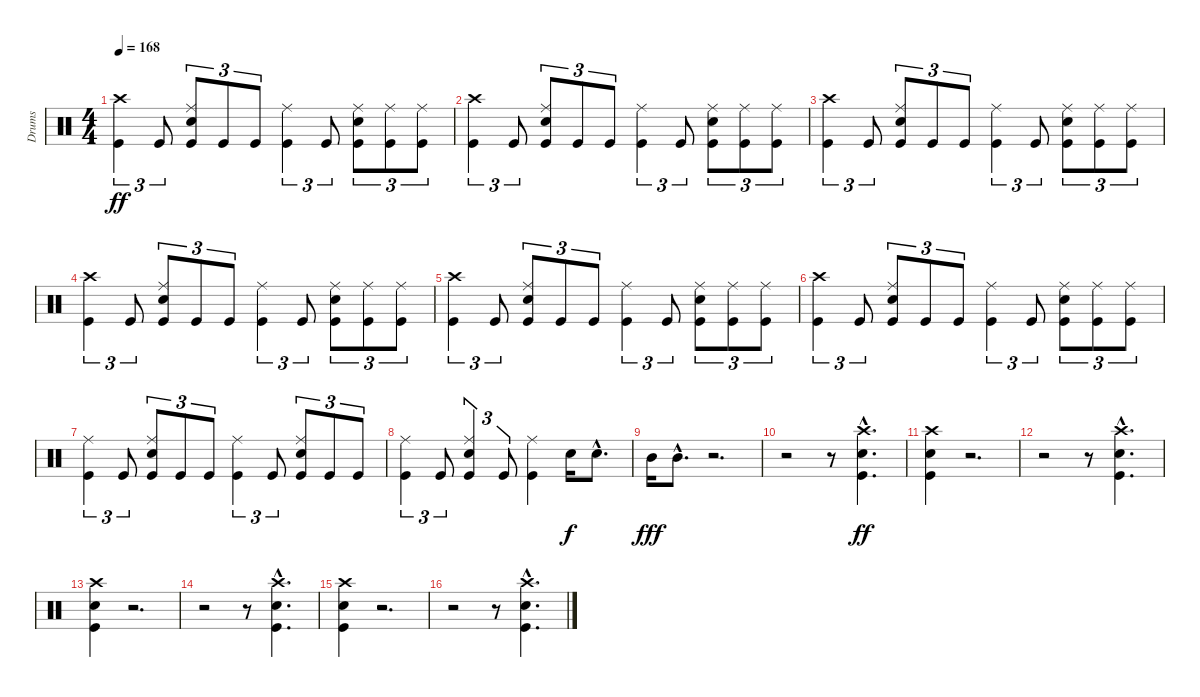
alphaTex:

\track ("Drums" "Drums") {instrument percussion}
\staff {score}
\articulation defaults
\ts (4 4)
\tempo 168
\clef neutral
\ks c
("Crash high (hit)" "Kick (hit)").4{tu (3 2) dy ff} "Kick (hit)".8{tu (3 2)} ("Ride (middle)" "Electric Snare (hit)" "Kick (hit)").8{tu (3 2)} "Kick (hit)".8{tu (3 2)} "Kick (hit)".8{tu (3 2)} ("Ride (middle)" "Kick (hit)").4{tu (3 2)} "Kick (hit)".8{tu (3 2)} ("Ride (middle)" "Electric Snare (hit)" "Kick (hit)").8{tu (3 2)} ("Ride (middle)" "Kick (hit)").8{tu (3 2)} ("Ride (middle)" "Kick (hit)").8{tu (3 2)} |
("Crash high (hit)" "Kick (hit)").4{tu (3 2)} "Kick (hit)".8{tu (3 2)} ("Ride (middle)" "Electric Snare (hit)" "Kick (hit)").8{tu (3 2)} "Kick (hit)".8{tu (3 2)} "Kick (hit)".8{tu (3 2)} ("Ride (middle)" "Kick (hit)").4{tu (3 2)} "Kick (hit)".8{tu (3 2)} ("Ride (middle)" "Electric Snare (hit)" "Kick (hit)").8{tu (3 2)} ("Ride (middle)" "Kick (hit)").8{tu (3 2)} ("Ride (middle)" "Kick (hit)").8{tu (3 2)} |
("Crash high (hit)" "Kick (hit)").4{tu (3 2)} "Kick (hit)".8{tu (3 2)} ("Ride (middle)" "Electric Snare (hit)" "Kick (hit)").8{tu (3 2)} "Kick (hit)".8{tu (3 2)} "Kick (hit)".8{tu (3 2)} ("Ride (middle)" "Kick (hit)").4{tu (3 2)} "Kick (hit)".8{tu (3 2)} ("Ride (middle)" "Electric Snare (hit)" "Kick (hit)").8{tu (3 2)} ("Ride (middle)" "Kick (hit)").8{tu (3 2)} ("Ride (middle)" "Kick (hit)").8{tu (3 2)} |
("Crash high (hit)" "Kick (hit)").4{tu (3 2)} "Kick (hit)".8{tu (3 2)} ("Ride (middle)" "Electric Snare (hit)" "Kick (hit)").8{tu (3 2)} "Kick (hit)".8{tu (3 2)} "Kick (hit)".8{tu (3 2)} ("Ride (middle)" "Kick (hit)").4{tu (3 2)} "Kick (hit)".8{tu (3 2)} ("Ride (middle)" "Electric Snare (hit)" "Kick (hit)").8{tu (3 2)} ("Ride (middle)" "Kick (hit)").8{tu (3 2)} ("Ride (middle)" "Kick (hit)").8{tu (3 2)} |
("Crash high (hit)" "Kick (hit)").4{tu (3 2)} "Kick (hit)".8{tu (3 2)} ("Ride (middle)" "Electric Snare (hit)" "Kick (hit)").8{tu (3 2)} "Kick (hit)".8{tu (3 2)} "Kick (hit)".8{tu (3 2)} ("Ride (middle)" "Kick (hit)").4{tu (3 2)} "Kick (hit)".8{tu (3 2)} ("Ride (middle)" "Electric Snare (hit)" "Kick (hit)").8{tu (3 2)} ("Ride (middle)" "Kick (hit)").8{tu (3 2)} ("Ride (middle)" "Kick (hit)").8{tu (3 2)} |
("Crash high (hit)" "Kick (hit)").4{tu (3 2)} "Kick (hit)".8{tu (3 2)} ("Ride (middle)" "Electric Snare (hit)" "Kick (hit)").8{tu (3 2)} "Kick (hit)".8{tu (3 2)} "Kick (hit)".8{tu (3 2)} ("Ride (middle)" "Kick (hit)").4{tu (3 2)} "Kick (hit)".8{tu (3 2)} ("Ride (middle)" "Electric Snare (hit)" "Kick (hit)").8{tu (3 2)} ("Ride (middle)" "Kick (hit)").8{tu (3 2)} ("Ride (middle)" "Kick (hit)").8{tu (3 2)} |
("Ride (middle)" "Kick (hit)").4{tu (3 2)} "Kick (hit)".8{tu (3 2)} ("Ride (middle)" "Electric Snare (hit)" "Kick (hit)").8{tu (3 2)} "Kick (hit)".8{tu (3 2)} "Kick (hit)".8{tu (3 2)} ("Ride (middle)" "Kick (hit)").4{tu (3 2)} "Kick (hit)".8{tu (3 2)} ("Ride (middle)" "Electric Snare (hit)" "Kick (hit)").8{tu (3 2)} "Kick (hit)".8{tu (3 2)} "Kick (hit)".8{tu (3 2)} |
("Ride (middle)" "Kick (hit)").4{tu (3 2)} "Kick (hit)".8{tu (3 2)} ("Ride (middle)" "Electric Snare (hit)" "Kick (hit)").4{tu (3 2)} "Kick (hit)".8{tu (3 2)} ("Ride (middle)" "Kick (hit)").4 "Electric Snare (hit)".16{dy f} "Electric Snare (hit)"{hac}.8{d} |
"Mid Tom (hit)".16{dy fff} "Mid Tom (hit)"{hac}.8{d} r.2{d} |
r.2 r.8 ("Crash high (hit)"{hac} "Electric Snare (hit)"{hac} "Kick (hit)"{hac}).4{d dy ff} |
("Crash high (hit)" "Electric Snare (hit)" "Kick (hit)").4 r.2{d} |
r.2 r.8 ("Crash high (hit)"{hac} "Electric Snare (hit)"{hac} "Kick (hit)"{hac}).4{d} |
("Crash high (hit)" "Electric Snare (hit)" "Kick (hit)").4 r.2{d} |
r.2 r.8 ("Crash high (hit)"{hac} "Electric Snare (hit)"{hac} "Kick (hit)"{hac}).4{d} |
("Crash high (hit)" "Electric Snare (hit)" "Kick (hit)").4 r.2{d} |
r.2 r.8 ("Crash high (hit)"{hac} "Electric Snare (hit)"{hac} "Kick (hit)"{hac}).4{d}
